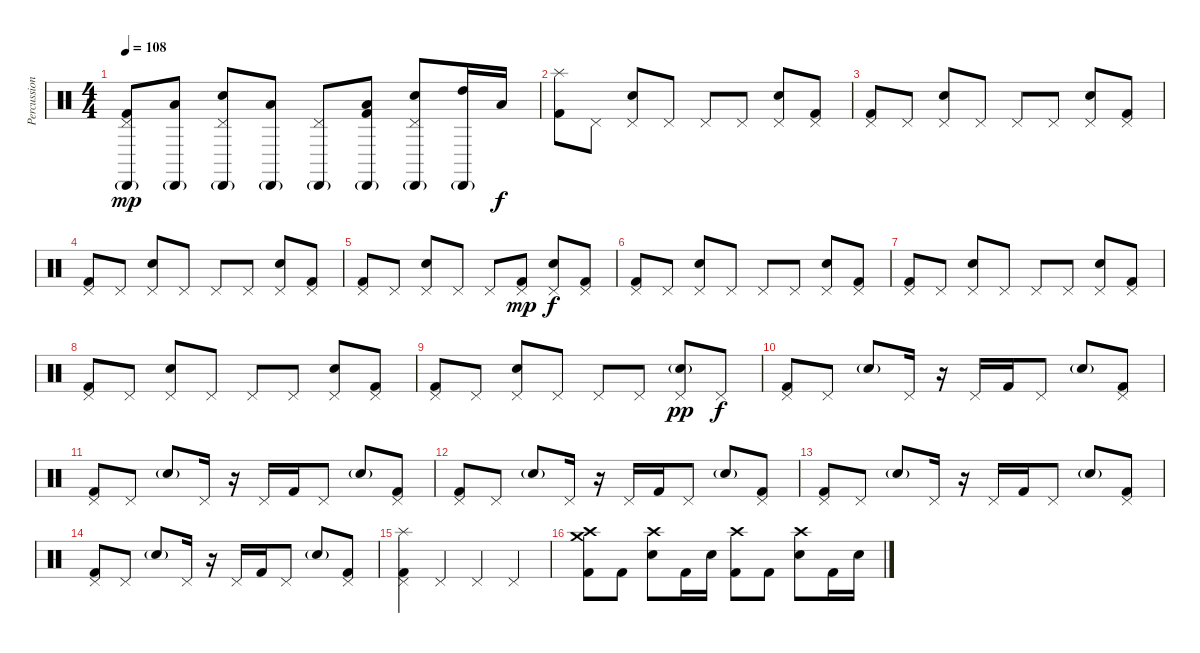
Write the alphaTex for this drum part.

\track ("Percussion" "Percussion") {instrument percussion}
\staff {score}
\articulation defaults
\ts (4 4)
\tempo 108
\clef neutral
\ks c
("Cabasa (hit)"{g} "Pedal Hi-Hat (hit)" "Kick (hit) 2").8{dy mp} ("Cabasa (hit)"{g} "Low Tom (hit)").8 ("Cabasa (hit)"{g} "Pedal Hi-Hat (hit)" "Snare (hit) 2").8 ("Cabasa (hit)"{g} "Low Tom (hit)").8 ("Cabasa (hit)"{g} "Pedal Hi-Hat (hit)").8 ("Cabasa (hit)"{g} "Low Tom (hit)" "Kick (hit) 2").8 ("Cabasa (hit)"{g} "Pedal Hi-Hat (hit)" "Snare (hit) 2").8 ("Cabasa (hit)"{g} "High Tom (hit)").16 "Low Tom (hit)".16{dy f} |
("Splash (hit)" "Kick (hit) 2").8 "Pedal Hi-Hat (hit)".8 ("Pedal Hi-Hat (hit)" "Snare (hit) 2").8 "Pedal Hi-Hat (hit)".8 "Pedal Hi-Hat (hit)".8 "Pedal Hi-Hat (hit)".8 ("Pedal Hi-Hat (hit)" "Snare (hit) 2").8 ("Pedal Hi-Hat (hit)" "Kick (hit) 2").8 |
("Pedal Hi-Hat (hit)" "Kick (hit) 2").8 "Pedal Hi-Hat (hit)".8 ("Pedal Hi-Hat (hit)" "Snare (hit) 2").8 "Pedal Hi-Hat (hit)".8 "Pedal Hi-Hat (hit)".8 "Pedal Hi-Hat (hit)".8 ("Pedal Hi-Hat (hit)" "Snare (hit) 2").8 ("Pedal Hi-Hat (hit)" "Kick (hit) 2").8 |
("Pedal Hi-Hat (hit)" "Kick (hit) 2").8 "Pedal Hi-Hat (hit)".8 ("Pedal Hi-Hat (hit)" "Snare (hit) 2").8 "Pedal Hi-Hat (hit)".8 "Pedal Hi-Hat (hit)".8 "Pedal Hi-Hat (hit)".8 ("Pedal Hi-Hat (hit)" "Snare (hit) 2").8 ("Pedal Hi-Hat (hit)" "Kick (hit) 2").8 |
("Pedal Hi-Hat (hit)" "Kick (hit) 2").8 "Pedal Hi-Hat (hit)".8 ("Pedal Hi-Hat (hit)" "Snare (hit) 2").8 "Pedal Hi-Hat (hit)".8 "Pedal Hi-Hat (hit)".8 ("Pedal Hi-Hat (hit)" "Kick (hit) 2").8{dy mp} ("Pedal Hi-Hat (hit)" "Snare (hit) 2").8{dy f} ("Pedal Hi-Hat (hit)" "Kick (hit) 2").8 |
("Pedal Hi-Hat (hit)" "Kick (hit) 2").8 "Pedal Hi-Hat (hit)".8 ("Pedal Hi-Hat (hit)" "Snare (hit) 2").8 "Pedal Hi-Hat (hit)".8 "Pedal Hi-Hat (hit)".8 "Pedal Hi-Hat (hit)".8 ("Pedal Hi-Hat (hit)" "Snare (hit) 2").8 ("Pedal Hi-Hat (hit)" "Kick (hit) 2").8 |
("Pedal Hi-Hat (hit)" "Kick (hit) 2").8 "Pedal Hi-Hat (hit)".8 ("Pedal Hi-Hat (hit)" "Snare (hit) 2").8 "Pedal Hi-Hat (hit)".8 "Pedal Hi-Hat (hit)".8 "Pedal Hi-Hat (hit)".8 ("Pedal Hi-Hat (hit)" "Snare (hit) 2").8 ("Pedal Hi-Hat (hit)" "Kick (hit) 2").8 |
("Pedal Hi-Hat (hit)" "Kick (hit) 2").8 "Pedal Hi-Hat (hit)".8 ("Pedal Hi-Hat (hit)" "Snare (hit) 2").8 "Pedal Hi-Hat (hit)".8 "Pedal Hi-Hat (hit)".8 "Pedal Hi-Hat (hit)".8 ("Pedal Hi-Hat (hit)" "Snare (hit) 2").8 ("Pedal Hi-Hat (hit)" "Kick (hit) 2").8 |
("Pedal Hi-Hat (hit)" "Kick (hit) 2").8 "Pedal Hi-Hat (hit)".8 ("Pedal Hi-Hat (hit)" "Snare (hit) 2").8 "Pedal Hi-Hat (hit)".8 "Pedal Hi-Hat (hit)".8 "Pedal Hi-Hat (hit)".8 ("Pedal Hi-Hat (hit)" "Electric Snare (hit)"{g}).8{dy pp} "Pedal Hi-Hat (hit)".8{dy f} |
("Pedal Hi-Hat (hit)" "Kick (hit) 2").8 "Pedal Hi-Hat (hit)".8 "Electric Snare (hit)"{g}.8 "Pedal Hi-Hat (hit)".16 r.16 "Pedal Hi-Hat (hit)".16 "Kick (hit) 2".16 "Pedal Hi-Hat (hit)".8 "Electric Snare (hit)"{g}.8 ("Pedal Hi-Hat (hit)" "Kick (hit) 2").8 |
("Pedal Hi-Hat (hit)" "Kick (hit) 2").8 "Pedal Hi-Hat (hit)".8 "Electric Snare (hit)"{g}.8 "Pedal Hi-Hat (hit)".16 r.16 "Pedal Hi-Hat (hit)".16 "Kick (hit) 2".16 "Pedal Hi-Hat (hit)".8 "Electric Snare (hit)"{g}.8 ("Pedal Hi-Hat (hit)" "Kick (hit) 2").8 |
("Pedal Hi-Hat (hit)" "Kick (hit) 2").8 "Pedal Hi-Hat (hit)".8 "Electric Snare (hit)"{g}.8 "Pedal Hi-Hat (hit)".16 r.16 "Pedal Hi-Hat (hit)".16 "Kick (hit) 2".16 "Pedal Hi-Hat (hit)".8 "Electric Snare (hit)"{g}.8 ("Pedal Hi-Hat (hit)" "Kick (hit) 2").8 |
("Pedal Hi-Hat (hit)" "Kick (hit) 2").8 "Pedal Hi-Hat (hit)".8 "Electric Snare (hit)"{g}.8 "Pedal Hi-Hat (hit)".16 r.16 "Pedal Hi-Hat (hit)".16 "Kick (hit) 2".16 "Pedal Hi-Hat (hit)".8 "Electric Snare (hit)"{g}.8 ("Pedal Hi-Hat (hit)" "Kick (hit) 2").8 |
("Pedal Hi-Hat (hit)" "Kick (hit) 2").8 "Pedal Hi-Hat (hit)".8 "Electric Snare (hit)"{g}.8 "Pedal Hi-Hat (hit)".16 r.16 "Pedal Hi-Hat (hit)".16 "Kick (hit) 2".16 "Pedal Hi-Hat (hit)".8 "Electric Snare (hit)"{g}.8 ("Pedal Hi-Hat (hit)" "Kick (hit) 2").8 |
("Splash (hit)" "Pedal Hi-Hat (hit)" "Kick (hit) 2").4 "Pedal Hi-Hat (hit)".4 "Pedal Hi-Hat (hit)".4 "Pedal Hi-Hat (hit)".4 |
("Crash medium (hit)" "Crash high (hit)" "Kick (hit) 2").8{volume 16} "Kick (hit) 2".8 ("Crash high (hit)" "Electric Snare (hit)").8 "Kick (hit) 2".16 "Electric Snare (hit)".16 ("Crash high (hit)" "Kick (hit) 2").8 "Kick (hit) 2".8 ("Crash high (hit)" "Electric Snare (hit)").8 "Kick (hit) 2".16 "Electric Snare (hit)".16
